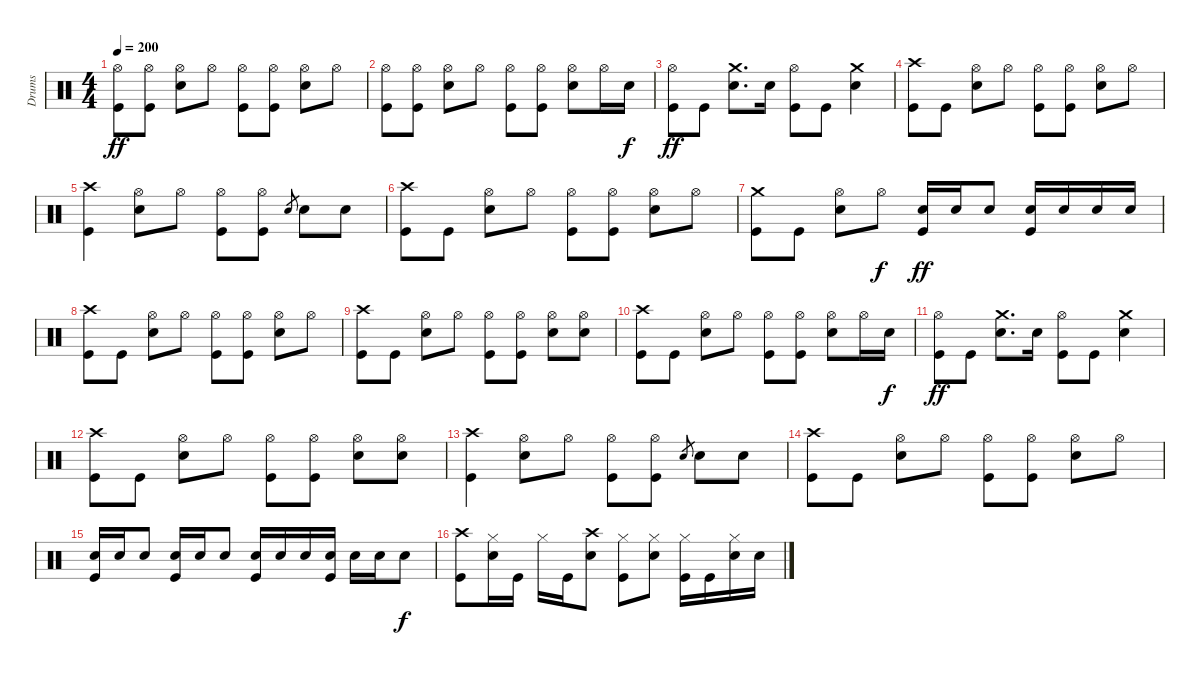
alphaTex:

\track ("Drums" "Drums") {instrument percussion}
\staff {score}
\articulation defaults
\ts (4 4)
\tempo 200
\clef neutral
\ks c
("Hi-Hat (open)" "Kick (hit)").8{dy ff} ("Hi-Hat (open)" "Kick (hit)").8 ("Hi-Hat (open)" "Snare (hit) 2").8 "Hi-Hat (open)".8 ("Hi-Hat (open)" "Kick (hit)").8 ("Hi-Hat (open)" "Kick (hit)").8 ("Hi-Hat (open)" "Snare (hit) 2").8 "Hi-Hat (open)".8 |
("Hi-Hat (open)" "Kick (hit)").8 ("Hi-Hat (open)" "Kick (hit)").8 ("Hi-Hat (open)" "Snare (hit) 2").8 "Hi-Hat (open)".8 ("Hi-Hat (open)" "Kick (hit)").8 ("Hi-Hat (open)" "Kick (hit)").8 ("Hi-Hat (open)" "Snare (hit) 2").8 "Hi-Hat (open)".16 "Snare (hit) 2".16{dy f} |
("Hi-Hat (open)" "Kick (hit)").8{dy ff} "Kick (hit)".8 ("Crash medium (hit)" "Snare (hit) 2").8{d} "Snare (hit) 2".16 ("Hi-Hat (open)" "Kick (hit)").8 "Kick (hit)".8 ("Crash medium (hit)" "Snare (hit) 2").4 |
("Crash high (hit)" "Kick (hit)").8 "Kick (hit)".8 ("Hi-Hat (open)" "Snare (hit) 2").8 "Hi-Hat (open)".8 ("Hi-Hat (open)" "Kick (hit)").8 ("Hi-Hat (open)" "Kick (hit)").8 ("Hi-Hat (open)" "Snare (hit) 2").8 "Hi-Hat (open)".8 |
("Crash high (hit)" "Kick (hit)").4 ("Hi-Hat (open)" "Snare (hit) 2").8 "Hi-Hat (open)".8 ("Hi-Hat (open)" "Kick (hit)").8 ("Hi-Hat (open)" "Kick (hit)").8 "Snare (hit) 2".8{gr} "Snare (hit) 2".8 "Snare (hit) 2".8 |
("Crash high (hit)" "Kick (hit)").8 "Kick (hit)".8 ("Hi-Hat (open)" "Snare (hit) 2").8 "Hi-Hat (open)".8 ("Hi-Hat (open)" "Kick (hit)").8 ("Hi-Hat (open)" "Kick (hit)").8 ("Hi-Hat (open)" "Snare (hit) 2").8 "Hi-Hat (open)".8 |
("Crash medium (hit)" "Kick (hit)").8 "Kick (hit)".8 ("Hi-Hat (open)" "Snare (hit) 2").8 "Hi-Hat (open)".8{dy f} ("Snare (hit) 2" "Kick (hit)").16{dy ff} "Snare (hit) 2".16 "Snare (hit) 2".8 ("Snare (hit) 2" "Kick (hit)").16 "Snare (hit) 2".16 "Snare (hit) 2".16 "Snare (hit) 2".16 |
("Crash high (hit)" "Kick (hit)").8 "Kick (hit)".8 ("Hi-Hat (open)" "Snare (hit) 2").8 "Hi-Hat (open)".8 ("Hi-Hat (open)" "Kick (hit)").8 ("Hi-Hat (open)" "Kick (hit)").8 ("Hi-Hat (open)" "Snare (hit) 2").8 "Hi-Hat (open)".8 |
("Crash high (hit)" "Kick (hit)").8 "Kick (hit)".8 ("Hi-Hat (open)" "Snare (hit) 2").8 "Hi-Hat (open)".8 ("Hi-Hat (open)" "Kick (hit)").8 ("Hi-Hat (open)" "Kick (hit)").8 ("Hi-Hat (open)" "Snare (hit) 2").8 ("Hi-Hat (open)" "Snare (hit) 2").8 |
("Crash high (hit)" "Kick (hit)").8 "Kick (hit)".8 ("Hi-Hat (open)" "Snare (hit) 2").8 "Hi-Hat (open)".8 ("Hi-Hat (open)" "Kick (hit)").8 ("Hi-Hat (open)" "Kick (hit)").8 ("Hi-Hat (open)" "Snare (hit) 2").8 "Hi-Hat (open)".16 "Snare (hit) 2".16{dy f} |
("Hi-Hat (open)" "Kick (hit)").8{dy ff} "Kick (hit)".8 ("Crash medium (hit)" "Snare (hit) 2").8{d} "Snare (hit) 2".16 ("Hi-Hat (open)" "Kick (hit)").8 "Kick (hit)".8 ("Crash medium (hit)" "Snare (hit) 2").4 |
("Crash high (hit)" "Kick (hit)").8 "Kick (hit)".8 ("Hi-Hat (open)" "Snare (hit) 2").8 "Hi-Hat (open)".8 ("Hi-Hat (open)" "Kick (hit)").8 ("Hi-Hat (open)" "Kick (hit)").8 ("Hi-Hat (open)" "Snare (hit) 2").8 ("Hi-Hat (open)" "Snare (hit) 2").8 |
("Crash high (hit)" "Kick (hit)").4 ("Hi-Hat (open)" "Snare (hit) 2").8 "Hi-Hat (open)".8 ("Hi-Hat (open)" "Kick (hit)").8 ("Hi-Hat (open)" "Kick (hit)").8 "Snare (hit) 2".8{gr} "Snare (hit) 2".8 "Snare (hit) 2".8 |
("Crash high (hit)" "Kick (hit)").8 "Kick (hit)".8 ("Hi-Hat (open)" "Snare (hit) 2").8 "Hi-Hat (open)".8 ("Hi-Hat (open)" "Kick (hit)").8 ("Hi-Hat (open)" "Kick (hit)").8 ("Hi-Hat (open)" "Snare (hit) 2").8 "Hi-Hat (open)".8 |
("Snare (hit) 2" "Kick (hit)").16 "Snare (hit) 2".16 "Snare (hit) 2".8 ("Snare (hit) 2" "Kick (hit)").16 "Snare (hit) 2".16 "Snare (hit) 2".8 ("Snare (hit) 2" "Kick (hit)").16 "Snare (hit) 2".16 "Snare (hit) 2".16 ("Snare (hit) 2" "Kick (hit)").16 "Snare (hit) 2".16 "Snare (hit) 2".16 "Snare (hit) 2".8{dy f} |
("Crash high (hit)" "Kick (hit)").8 ("Hi-Hat (closed)" "Snare (hit) 2").16 "Kick (hit)".16 "Hi-Hat (closed)".16 "Kick (hit)".16 ("Crash high (hit)" "Snare (hit) 2").8 ("Hi-Hat (closed)" "Kick (hit)").8 ("Hi-Hat (closed)" "Snare (hit) 2").8 ("Hi-Hat (closed)" "Kick (hit)").16 "Kick (hit)".16 ("Hi-Hat (closed)" "Snare (hit) 2").16 "Snare (hit) 2".16
